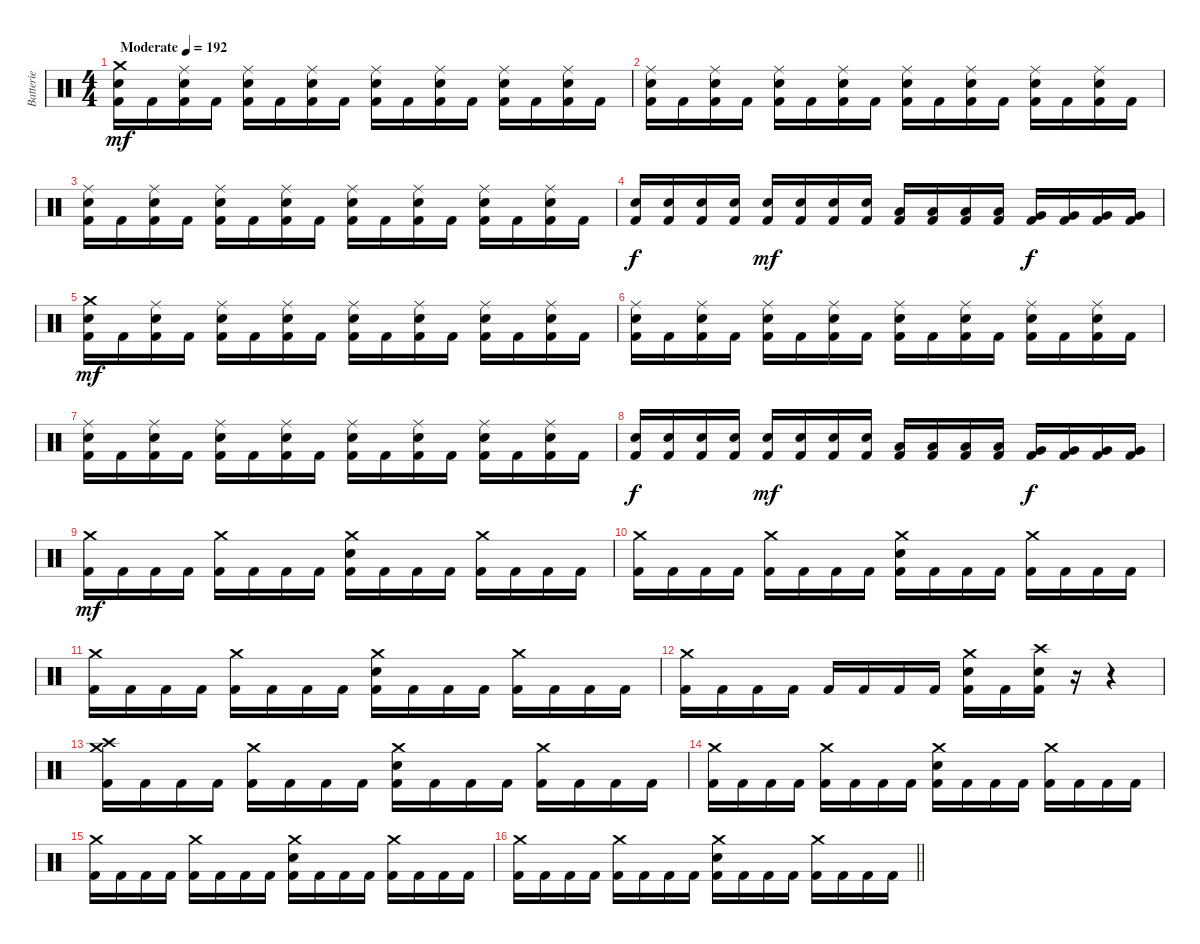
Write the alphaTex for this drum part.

\track ("Batterie" "Batterie") {instrument percussion}
\staff {score}
\articulation defaults
\ts (4 4)
\tempo (192 "Moderate")
\clef neutral
\ks c
("Crash medium (hit)" "Snare (hit) 2" "Kick (hit) 2").16{dy mf} "Kick (hit) 2".16 ("Ride (middle)" "Snare (hit) 2" "Kick (hit) 2").16 "Kick (hit) 2".16 ("Ride (middle)" "Snare (hit) 2" "Kick (hit) 2").16 "Kick (hit) 2".16 ("Ride (middle)" "Snare (hit) 2" "Kick (hit) 2").16 "Kick (hit) 2".16 ("Ride (middle)" "Snare (hit) 2" "Kick (hit) 2").16 "Kick (hit) 2".16 ("Ride (middle)" "Snare (hit) 2" "Kick (hit) 2").16 "Kick (hit) 2".16 ("Ride (middle)" "Snare (hit) 2" "Kick (hit) 2").16 "Kick (hit) 2".16 ("Ride (middle)" "Snare (hit) 2" "Kick (hit) 2").16 "Kick (hit) 2".16 |
("Ride (middle)" "Snare (hit) 2" "Kick (hit) 2").16 "Kick (hit) 2".16 ("Ride (middle)" "Snare (hit) 2" "Kick (hit) 2").16 "Kick (hit) 2".16 ("Ride (middle)" "Snare (hit) 2" "Kick (hit) 2").16 "Kick (hit) 2".16 ("Ride (middle)" "Snare (hit) 2" "Kick (hit) 2").16 "Kick (hit) 2".16 ("Ride (middle)" "Snare (hit) 2" "Kick (hit) 2").16 "Kick (hit) 2".16 ("Ride (middle)" "Snare (hit) 2" "Kick (hit) 2").16 "Kick (hit) 2".16 ("Ride (middle)" "Snare (hit) 2" "Kick (hit) 2").16 "Kick (hit) 2".16 ("Ride (middle)" "Snare (hit) 2" "Kick (hit) 2").16 "Kick (hit) 2".16 |
("Ride (middle)" "Snare (hit) 2" "Kick (hit) 2").16 "Kick (hit) 2".16 ("Ride (middle)" "Snare (hit) 2" "Kick (hit) 2").16 "Kick (hit) 2".16 ("Ride (middle)" "Snare (hit) 2" "Kick (hit) 2").16 "Kick (hit) 2".16 ("Ride (middle)" "Snare (hit) 2" "Kick (hit) 2").16 "Kick (hit) 2".16 ("Ride (middle)" "Snare (hit) 2" "Kick (hit) 2").16 "Kick (hit) 2".16 ("Ride (middle)" "Snare (hit) 2" "Kick (hit) 2").16 "Kick (hit) 2".16 ("Ride (middle)" "Snare (hit) 2" "Kick (hit) 2").16 "Kick (hit) 2".16 ("Ride (middle)" "Snare (hit) 2" "Kick (hit) 2").16 "Kick (hit) 2".16 |
("Snare (hit) 2" "Kick (hit) 2").16{dy f} ("Snare (hit) 2" "Kick (hit) 2").16 ("Snare (hit) 2" "Kick (hit) 2").16 ("Snare (hit) 2" "Kick (hit) 2").16 ("Snare (hit) 2" "Kick (hit) 2").16{dy mf} ("Snare (hit) 2" "Kick (hit) 2").16 ("Snare (hit) 2" "Kick (hit) 2").16 ("Snare (hit) 2" "Kick (hit) 2").16 ("Low Tom (hit)" "Kick (hit) 2").16 ("Low Tom (hit)" "Kick (hit) 2").16 ("Low Tom (hit)" "Kick (hit) 2").16 ("Low Tom (hit)" "Kick (hit) 2").16 ("Very Low Tom (hit)" "Kick (hit) 2").16{dy f} ("Very Low Tom (hit)" "Kick (hit) 2").16 ("Very Low Tom (hit)" "Kick (hit) 2").16 ("Very Low Tom (hit)" "Kick (hit) 2").16 |
("Crash medium (hit)" "Snare (hit) 2" "Kick (hit) 2").16{dy mf} "Kick (hit) 2".16 ("Ride (middle)" "Snare (hit) 2" "Kick (hit) 2").16 "Kick (hit) 2".16 ("Ride (middle)" "Snare (hit) 2" "Kick (hit) 2").16 "Kick (hit) 2".16 ("Ride (middle)" "Snare (hit) 2" "Kick (hit) 2").16 "Kick (hit) 2".16 ("Ride (middle)" "Snare (hit) 2" "Kick (hit) 2").16 "Kick (hit) 2".16 ("Ride (middle)" "Snare (hit) 2" "Kick (hit) 2").16 "Kick (hit) 2".16 ("Ride (middle)" "Snare (hit) 2" "Kick (hit) 2").16 "Kick (hit) 2".16 ("Ride (middle)" "Snare (hit) 2" "Kick (hit) 2").16 "Kick (hit) 2".16 |
("Ride (middle)" "Snare (hit) 2" "Kick (hit) 2").16 "Kick (hit) 2".16 ("Ride (middle)" "Snare (hit) 2" "Kick (hit) 2").16 "Kick (hit) 2".16 ("Ride (middle)" "Snare (hit) 2" "Kick (hit) 2").16 "Kick (hit) 2".16 ("Ride (middle)" "Snare (hit) 2" "Kick (hit) 2").16 "Kick (hit) 2".16 ("Ride (middle)" "Snare (hit) 2" "Kick (hit) 2").16 "Kick (hit) 2".16 ("Ride (middle)" "Snare (hit) 2" "Kick (hit) 2").16 "Kick (hit) 2".16 ("Ride (middle)" "Snare (hit) 2" "Kick (hit) 2").16 "Kick (hit) 2".16 ("Ride (middle)" "Snare (hit) 2" "Kick (hit) 2").16 "Kick (hit) 2".16 |
("Ride (middle)" "Snare (hit) 2" "Kick (hit) 2").16 "Kick (hit) 2".16 ("Ride (middle)" "Snare (hit) 2" "Kick (hit) 2").16 "Kick (hit) 2".16 ("Ride (middle)" "Snare (hit) 2" "Kick (hit) 2").16 "Kick (hit) 2".16 ("Ride (middle)" "Snare (hit) 2" "Kick (hit) 2").16 "Kick (hit) 2".16 ("Ride (middle)" "Snare (hit) 2" "Kick (hit) 2").16 "Kick (hit) 2".16 ("Ride (middle)" "Snare (hit) 2" "Kick (hit) 2").16 "Kick (hit) 2".16 ("Ride (middle)" "Snare (hit) 2" "Kick (hit) 2").16 "Kick (hit) 2".16 ("Ride (middle)" "Snare (hit) 2" "Kick (hit) 2").16 "Kick (hit) 2".16 |
("Snare (hit) 2" "Kick (hit) 2").16{dy f} ("Snare (hit) 2" "Kick (hit) 2").16 ("Snare (hit) 2" "Kick (hit) 2").16 ("Snare (hit) 2" "Kick (hit) 2").16 ("Snare (hit) 2" "Kick (hit) 2").16{dy mf} ("Snare (hit) 2" "Kick (hit) 2").16 ("Snare (hit) 2" "Kick (hit) 2").16 ("Snare (hit) 2" "Kick (hit) 2").16 ("Low Tom (hit)" "Kick (hit) 2").16 ("Low Tom (hit)" "Kick (hit) 2").16 ("Low Tom (hit)" "Kick (hit) 2").16 ("Low Tom (hit)" "Kick (hit) 2").16 ("Very Low Tom (hit)" "Kick (hit) 2").16{dy f} ("Very Low Tom (hit)" "Kick (hit) 2").16 ("Very Low Tom (hit)" "Kick (hit) 2").16 ("Very Low Tom (hit)" "Kick (hit) 2").16 |
("Crash medium (hit)" "Kick (hit) 2").16{dy mf} "Kick (hit) 2".16 "Kick (hit) 2".16 "Kick (hit) 2".16 ("Crash medium (hit)" "Kick (hit) 2").16 "Kick (hit) 2".16 "Kick (hit) 2".16 "Kick (hit) 2".16 ("Crash medium (hit)" "Snare (hit) 2" "Kick (hit) 2").16 "Kick (hit) 2".16 "Kick (hit) 2".16 "Kick (hit) 2".16 ("Crash medium (hit)" "Kick (hit) 2").16 "Kick (hit) 2".16 "Kick (hit) 2".16 "Kick (hit) 2".16 |
("Crash medium (hit)" "Kick (hit) 2").16 "Kick (hit) 2".16 "Kick (hit) 2".16 "Kick (hit) 2".16 ("Crash medium (hit)" "Kick (hit) 2").16 "Kick (hit) 2".16 "Kick (hit) 2".16 "Kick (hit) 2".16 ("Crash medium (hit)" "Snare (hit) 2" "Kick (hit) 2").16 "Kick (hit) 2".16 "Kick (hit) 2".16 "Kick (hit) 2".16 ("Crash medium (hit)" "Kick (hit) 2").16 "Kick (hit) 2".16 "Kick (hit) 2".16 "Kick (hit) 2".16 |
("Crash medium (hit)" "Kick (hit) 2").16 "Kick (hit) 2".16 "Kick (hit) 2".16 "Kick (hit) 2".16 ("Crash medium (hit)" "Kick (hit) 2").16 "Kick (hit) 2".16 "Kick (hit) 2".16 "Kick (hit) 2".16 ("Crash medium (hit)" "Snare (hit) 2" "Kick (hit) 2").16 "Kick (hit) 2".16 "Kick (hit) 2".16 "Kick (hit) 2".16 ("Crash medium (hit)" "Kick (hit) 2").16 "Kick (hit) 2".16 "Kick (hit) 2".16 "Kick (hit) 2".16 |
("Crash medium (hit)" "Kick (hit) 2").16 "Kick (hit) 2".16 "Kick (hit) 2".16 "Kick (hit) 2".16 "Kick (hit) 2".16 "Kick (hit) 2".16 "Kick (hit) 2".16 "Kick (hit) 2".16 ("Crash medium (hit)" "Snare (hit) 2" "Kick (hit) 2").16 "Kick (hit) 2".16 ("Crash high (hit)" "Snare (hit) 2" "Kick (hit) 2").16 r.16 r.4 |
("Crash medium (hit)" "Crash high (hit)" "Kick (hit) 2").16 "Kick (hit) 2".16 "Kick (hit) 2".16 "Kick (hit) 2".16 ("Crash medium (hit)" "Kick (hit) 2").16 "Kick (hit) 2".16 "Kick (hit) 2".16 "Kick (hit) 2".16 ("Crash medium (hit)" "Snare (hit) 2" "Kick (hit) 2").16 "Kick (hit) 2".16 "Kick (hit) 2".16 "Kick (hit) 2".16 ("Crash medium (hit)" "Kick (hit) 2").16 "Kick (hit) 2".16 "Kick (hit) 2".16 "Kick (hit) 2".16 |
("Crash medium (hit)" "Kick (hit) 2").16 "Kick (hit) 2".16 "Kick (hit) 2".16 "Kick (hit) 2".16 ("Crash medium (hit)" "Kick (hit) 2").16 "Kick (hit) 2".16 "Kick (hit) 2".16 "Kick (hit) 2".16 ("Crash medium (hit)" "Snare (hit) 2" "Kick (hit) 2").16 "Kick (hit) 2".16 "Kick (hit) 2".16 "Kick (hit) 2".16 ("Crash medium (hit)" "Kick (hit) 2").16 "Kick (hit) 2".16 "Kick (hit) 2".16 "Kick (hit) 2".16 |
("Crash medium (hit)" "Kick (hit) 2").16 "Kick (hit) 2".16 "Kick (hit) 2".16 "Kick (hit) 2".16 ("Crash medium (hit)" "Kick (hit) 2").16 "Kick (hit) 2".16 "Kick (hit) 2".16 "Kick (hit) 2".16 ("Crash medium (hit)" "Snare (hit) 2" "Kick (hit) 2").16 "Kick (hit) 2".16 "Kick (hit) 2".16 "Kick (hit) 2".16 ("Crash medium (hit)" "Kick (hit) 2").16 "Kick (hit) 2".16 "Kick (hit) 2".16 "Kick (hit) 2".16 |
\barLineRight lightlight
("Crash medium (hit)" "Kick (hit) 2").16 "Kick (hit) 2".16 "Kick (hit) 2".16 "Kick (hit) 2".16 ("Crash medium (hit)" "Kick (hit) 2").16 "Kick (hit) 2".16 "Kick (hit) 2".16 "Kick (hit) 2".16 ("Crash medium (hit)" "Snare (hit) 2" "Kick (hit) 2").16 "Kick (hit) 2".16 "Kick (hit) 2".16 "Kick (hit) 2".16 ("Crash medium (hit)" "Kick (hit) 2").16 "Kick (hit) 2".16 "Kick (hit) 2".16 "Kick (hit) 2".16
